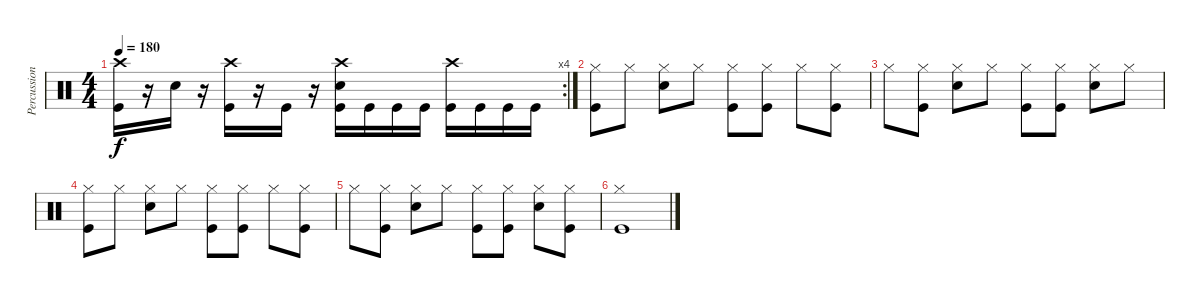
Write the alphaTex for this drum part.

\track ("Percussion" "Percussion") {instrument percussion}
\staff {score}
\articulation defaults
\rc 4
\ts (4 4)
\tempo 180
\clef neutral
\ks c
("Crash high (hit)" "Kick (hit)").16{dy f} r.16 "Electric Snare (hit)".16 r.16 ("Crash high (hit)" "Kick (hit)").16 r.16 "Kick (hit)".16 r.16 ("Crash high (hit)" "Electric Snare (hit)" "Kick (hit)").16 "Kick (hit)".16 "Kick (hit)".16 "Kick (hit)".16 ("Crash high (hit)" "Kick (hit)").16 "Kick (hit)".16 "Kick (hit)".16 "Kick (hit)".16 |
("Hi-Hat (closed)" "Kick (hit)").8 "Hi-Hat (closed)".8 ("Hi-Hat (closed)" "Electric Snare (hit)").8 "Hi-Hat (closed)".8 ("Hi-Hat (closed)" "Kick (hit)").8 ("Hi-Hat (closed)" "Kick (hit)").8 "Hi-Hat (closed)".8 ("Hi-Hat (closed)" "Kick (hit)").8 |
"Hi-Hat (closed)".8 ("Hi-Hat (closed)" "Kick (hit)").8 ("Hi-Hat (closed)" "Electric Snare (hit)").8 "Hi-Hat (closed)".8 ("Hi-Hat (closed)" "Kick (hit)").8 ("Hi-Hat (closed)" "Kick (hit)").8 ("Hi-Hat (closed)" "Electric Snare (hit)").8 "Hi-Hat (closed)".8 |
("Hi-Hat (closed)" "Kick (hit)").8 "Hi-Hat (closed)".8 ("Hi-Hat (closed)" "Electric Snare (hit)").8 "Hi-Hat (closed)".8 ("Hi-Hat (closed)" "Kick (hit)").8 ("Hi-Hat (closed)" "Kick (hit)").8 "Hi-Hat (closed)".8 ("Hi-Hat (closed)" "Kick (hit)").8 |
"Hi-Hat (closed)".8 ("Hi-Hat (closed)" "Kick (hit)").8 ("Hi-Hat (closed)" "Electric Snare (hit)").8 "Hi-Hat (closed)".8 ("Hi-Hat (closed)" "Kick (hit)").8 ("Hi-Hat (closed)" "Kick (hit)").8 ("Hi-Hat (closed)" "Electric Snare (hit)").8 ("Hi-Hat (closed)" "Kick (hit)").8 |
("Hi-Hat (closed)" "Kick (hit)").1
